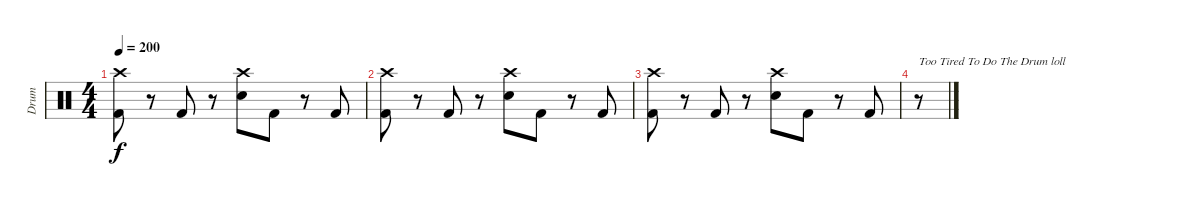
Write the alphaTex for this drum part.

\track ("Drum" "Drum") {instrument percussion}
\staff {score}
\articulation defaults
\ts (4 4)
\tempo 200
\clef neutral
\ks c
("Crash high (hit)" "Kick (hit) 2").8{dy f} r.8 "Kick (hit) 2".8 r.8 ("Crash high (hit)" "Electric Snare (hit)").8 "Kick (hit) 2".8 r.8 "Kick (hit) 2".8 |
("Crash high (hit)" "Kick (hit) 2").8 r.8 "Kick (hit) 2".8 r.8 ("Crash high (hit)" "Electric Snare (hit)").8 "Kick (hit) 2".8 r.8 "Kick (hit) 2".8 |
("Crash high (hit)" "Kick (hit) 2").8 r.8 "Kick (hit) 2".8 r.8 ("Crash high (hit)" "Electric Snare (hit)").8 "Kick (hit) 2".8 r.8 "Kick (hit) 2".8 |
r.8{txt "Too Tired To Do The Drum loll"}
